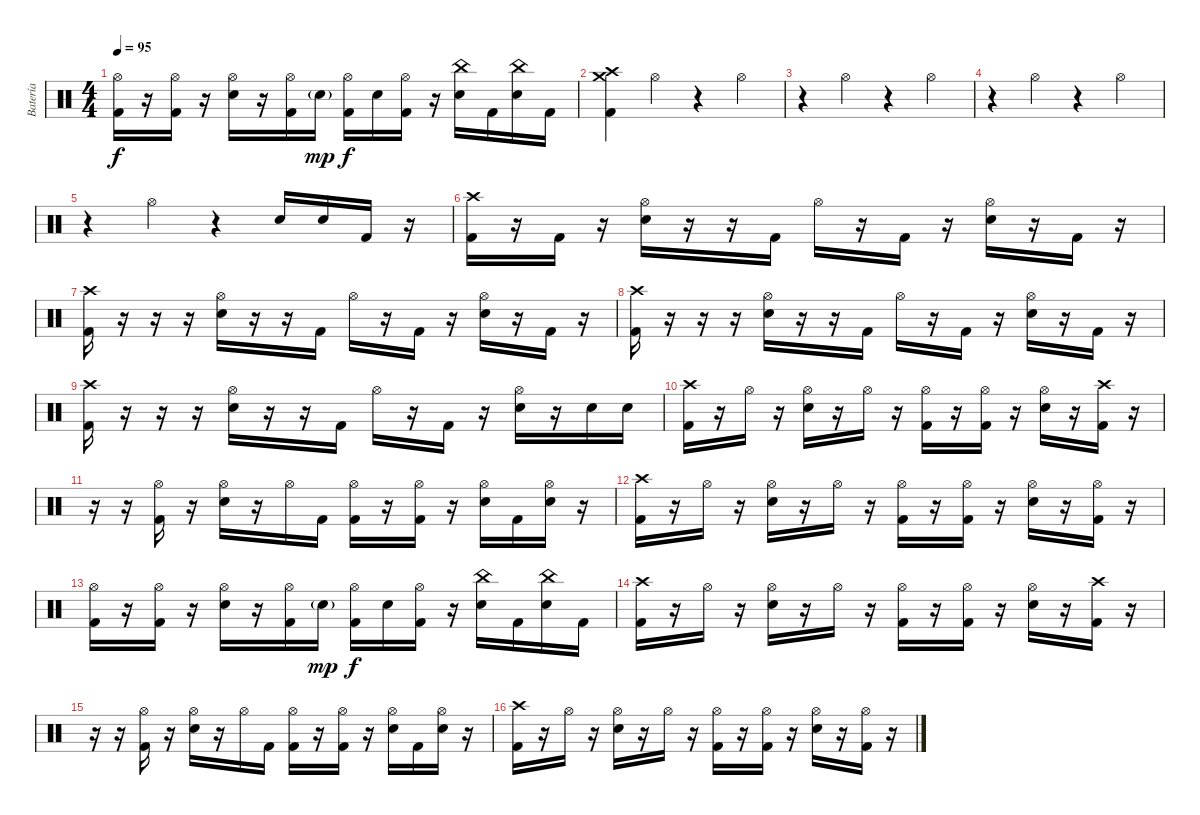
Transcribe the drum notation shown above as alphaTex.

\track ("Batería" "Batería") {instrument percussion}
\staff {score}
\articulation defaults
\ts (4 4)
\tempo 95
\clef neutral
\ks c
("Hi-Hat (open)" "Kick (hit) 2").16{dy f} r.16 ("Hi-Hat (open)" "Kick (hit) 2").16 r.16 ("Hi-Hat (open)" "Electric Snare (hit)").16 r.16 ("Hi-Hat (open)" "Kick (hit) 2").16 "Electric Snare (hit)"{g}.16{dy mp} ("Hi-Hat (open)" "Kick (hit) 2").16{dy f} "Electric Snare (hit)".16 ("Hi-Hat (open)" "Kick (hit) 2").16 r.16 ("China (hit)" "Electric Snare (hit)").16 "Kick (hit) 2".16 ("China (hit)" "Electric Snare (hit)").16 "Kick (hit) 2".16 |
("Crash medium (hit)" "Crash high (hit)" "Kick (hit) 2").4 "Hi-Hat (open)".4 r.4 "Hi-Hat (open)".4 |
r.4 "Hi-Hat (open)".4 r.4 "Hi-Hat (open)".4 |
r.4 "Hi-Hat (open)".4 r.4 "Hi-Hat (open)".4 |
r.4 "Hi-Hat (open)".4 r.4 "Electric Snare (hit)".16 "Electric Snare (hit)".16 "Kick (hit) 2".16 r.16 |
("Crash high (hit)" "Kick (hit) 2").16 r.16 "Kick (hit) 2".16 r.16 ("Hi-Hat (open)" "Electric Snare (hit)").16 r.16 r.16 "Kick (hit) 2".16 "Hi-Hat (open)".16 r.16 "Kick (hit) 2".16 r.16 ("Hi-Hat (open)" "Electric Snare (hit)").16 r.16 "Kick (hit) 2".16 r.16 |
("Crash high (hit)" "Kick (hit) 2").16 r.16 r.16 r.16 ("Hi-Hat (open)" "Electric Snare (hit)").16 r.16 r.16 "Kick (hit) 2".16 "Hi-Hat (open)".16 r.16 "Kick (hit) 2".16 r.16 ("Hi-Hat (open)" "Electric Snare (hit)").16 r.16 "Kick (hit) 2".16 r.16 |
("Crash high (hit)" "Kick (hit) 2").16 r.16 r.16 r.16 ("Hi-Hat (open)" "Electric Snare (hit)").16 r.16 r.16 "Kick (hit) 2".16 "Hi-Hat (open)".16 r.16 "Kick (hit) 2".16 r.16 ("Hi-Hat (open)" "Electric Snare (hit)").16 r.16 "Kick (hit) 2".16 r.16 |
("Crash high (hit)" "Kick (hit) 2").16 r.16 r.16 r.16 ("Hi-Hat (open)" "Electric Snare (hit)").16 r.16 r.16 "Kick (hit) 2".16 "Hi-Hat (open)".16 r.16 "Kick (hit) 2".16 r.16 ("Hi-Hat (open)" "Electric Snare (hit)").16 r.16 "Electric Snare (hit)".16 "Electric Snare (hit)".16 |
("Crash high (hit)" "Kick (hit) 2").16 r.16 "Hi-Hat (open)".16 r.16 ("Hi-Hat (open)" "Electric Snare (hit)").16 r.16 "Hi-Hat (open)".16 r.16 ("Hi-Hat (open)" "Kick (hit) 2").16 r.16 ("Hi-Hat (open)" "Kick (hit) 2").16 r.16 ("Hi-Hat (open)" "Electric Snare (hit)").16 r.16 ("Crash high (hit)" "Kick (hit) 2").16 r.16 |
r.16 r.16 ("Hi-Hat (open)" "Kick (hit) 2").16 r.16 ("Hi-Hat (open)" "Electric Snare (hit)").16 r.16 "Hi-Hat (open)".16 "Kick (hit) 2".16 ("Hi-Hat (open)" "Kick (hit) 2").16 r.16 ("Hi-Hat (open)" "Kick (hit) 2").16 r.16 ("Hi-Hat (open)" "Electric Snare (hit)").16 "Kick (hit) 2".16 ("Hi-Hat (open)" "Electric Snare (hit)").16 r.16 |
("Crash high (hit)" "Kick (hit) 2").16 r.16 "Hi-Hat (open)".16 r.16 ("Hi-Hat (open)" "Electric Snare (hit)").16 r.16 "Hi-Hat (open)".16 r.16 ("Hi-Hat (open)" "Kick (hit) 2").16 r.16 ("Hi-Hat (open)" "Kick (hit) 2").16 r.16 ("Hi-Hat (open)" "Electric Snare (hit)").16 r.16 ("Hi-Hat (open)" "Kick (hit) 2").16 r.16 |
("Hi-Hat (open)" "Kick (hit) 2").16 r.16 ("Hi-Hat (open)" "Kick (hit) 2").16 r.16 ("Hi-Hat (open)" "Electric Snare (hit)").16 r.16 ("Hi-Hat (open)" "Kick (hit) 2").16 "Electric Snare (hit)"{g}.16{dy mp} ("Hi-Hat (open)" "Kick (hit) 2").16{dy f} "Electric Snare (hit)".16 ("Hi-Hat (open)" "Kick (hit) 2").16 r.16 ("China (hit)" "Electric Snare (hit)").16 "Kick (hit) 2".16 ("China (hit)" "Electric Snare (hit)").16 "Kick (hit) 2".16 |
("Crash high (hit)" "Kick (hit) 2").16 r.16 "Hi-Hat (open)".16 r.16 ("Hi-Hat (open)" "Electric Snare (hit)").16 r.16 "Hi-Hat (open)".16 r.16 ("Hi-Hat (open)" "Kick (hit) 2").16 r.16 ("Hi-Hat (open)" "Kick (hit) 2").16 r.16 ("Hi-Hat (open)" "Electric Snare (hit)").16 r.16 ("Crash high (hit)" "Kick (hit) 2").16 r.16 |
r.16 r.16 ("Hi-Hat (open)" "Kick (hit) 2").16 r.16 ("Hi-Hat (open)" "Electric Snare (hit)").16 r.16 "Hi-Hat (open)".16 "Kick (hit) 2".16 ("Hi-Hat (open)" "Kick (hit) 2").16 r.16 ("Hi-Hat (open)" "Kick (hit) 2").16 r.16 ("Hi-Hat (open)" "Electric Snare (hit)").16 "Kick (hit) 2".16 ("Hi-Hat (open)" "Electric Snare (hit)").16 r.16 |
("Crash high (hit)" "Kick (hit) 2").16 r.16 "Hi-Hat (open)".16 r.16 ("Hi-Hat (open)" "Electric Snare (hit)").16 r.16 "Hi-Hat (open)".16 r.16 ("Hi-Hat (open)" "Kick (hit) 2").16 r.16 ("Hi-Hat (open)" "Kick (hit) 2").16 r.16 ("Hi-Hat (open)" "Electric Snare (hit)").16 r.16 ("Hi-Hat (open)" "Kick (hit) 2").16 r.16
